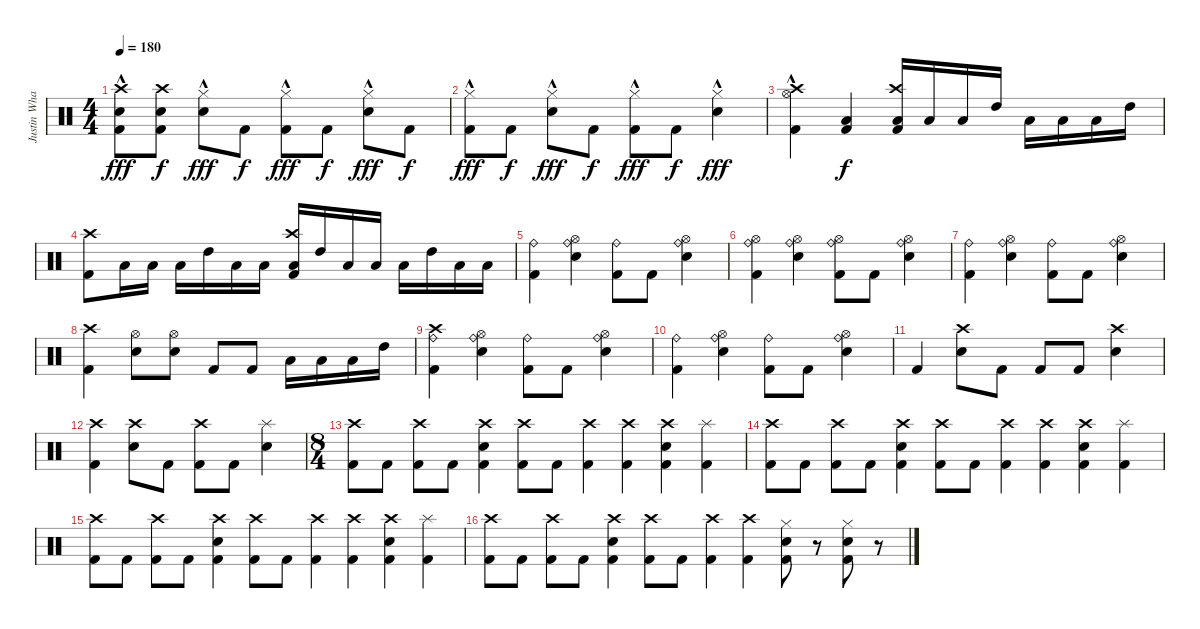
\track ("Justin Wharton" "Justin Wha") {instrument percussion}
\staff {score}
\articulation defaults
\ts (4 4)
\tempo 180
\clef neutral
\ks c
("Kick (hit) 2" "Electric Snare (hit)" "Crash high (hit)"{hac}).8{dy fff} ("Kick (hit) 2" "Electric Snare (hit)" "Crash high (hit)").8{dy f} ("Electric Snare (hit)" "Hi-Hat (closed)"{hac}).8{dy fff} "Kick (hit) 2".8{dy f} ("Kick (hit) 2" "Hi-Hat (closed)"{hac}).8{dy fff} "Kick (hit) 2".8{dy f} ("Electric Snare (hit)" "Hi-Hat (closed)"{hac}).8{dy fff} "Kick (hit) 2".8{dy f} |
("Kick (hit) 2" "Hi-Hat (closed)"{hac}).8{dy fff} "Kick (hit) 2".8{dy f} ("Electric Snare (hit)" "Hi-Hat (closed)"{hac}).8{dy fff} "Kick (hit) 2".8{dy f} ("Kick (hit) 2" "Hi-Hat (closed)"{hac}).8{dy fff} "Kick (hit) 2".8{dy f} ("Electric Snare (hit)" "Hi-Hat (closed)"{hac}).4{dy fff} |
("Kick (hit) 2" "Hi-Hat (open)"{hac} "Crash high (hit)").4 ("Kick (hit) 2" "Low Tom (hit)").4{dy f} ("Kick (hit) 2" "Low Floor Tom (hit)" "Crash high (hit)").16 "Low Floor Tom (hit)".16 "Low Tom (hit)".16 "High Tom (hit)".16 "Low Floor Tom (hit)".16 "Low Floor Tom (hit)".16 "Low Tom (hit)".16 "High Tom (hit)".16 |
("Kick (hit) 2" "Crash high (hit)").8 "Low Floor Tom (hit)".16 "Low Floor Tom (hit)".16 "Low Tom (hit)".16 "High Tom (hit)".16 "Low Floor Tom (hit)".16 "Low Floor Tom (hit)".16 ("Kick (hit) 2" "Low Tom (hit)" "Crash high (hit)").16 "High Tom (hit)".16 "Low Floor Tom (hit)".16 "Low Floor Tom (hit)".16 "Low Tom (hit)".16 "High Tom (hit)".16 "Low Floor Tom (hit)".16 "Low Floor Tom (hit)".16 |
("Kick (hit) 2" "Ride (bell)").4 ("Hi-Hat (open)" "Electric Snare (hit)" "Ride (bell)").4 ("Kick (hit) 2" "Ride (bell)").8 "Kick (hit) 2".8 ("Hi-Hat (open)" "Electric Snare (hit)" "Ride (bell)").4 |
("Kick (hit) 2" "Hi-Hat (open)" "Ride (bell)").4 ("Hi-Hat (open)" "Electric Snare (hit)" "Ride (bell)").4 ("Kick (hit) 2" "Hi-Hat (open)" "Ride (bell)").8 "Kick (hit) 2".8 ("Hi-Hat (open)" "Electric Snare (hit)" "Ride (bell)").4 |
("Kick (hit) 2" "Ride (bell)").4 ("Hi-Hat (open)" "Electric Snare (hit)" "Ride (bell)").4 ("Kick (hit) 2" "Ride (bell)").8 "Kick (hit) 2".8 ("Hi-Hat (open)" "Electric Snare (hit)" "Ride (bell)").4 |
("Kick (hit) 2" "Crash high (hit)").4 ("Electric Snare (hit)" "Hi-Hat (open)").8 ("Electric Snare (hit)" "Hi-Hat (open)").8 "Kick (hit) 2".8 "Kick (hit) 2".8 "Low Floor Tom (hit)".16 "Low Floor Tom (hit)".16 "Low Tom (hit)".16 "High Tom (hit)".16 |
("Kick (hit) 2" "Ride (bell)" "Crash high (hit)").4 ("Hi-Hat (open)" "Electric Snare (hit)" "Ride (bell)").4 ("Kick (hit) 2" "Ride (bell)").8 "Kick (hit) 2".8 ("Hi-Hat (open)" "Electric Snare (hit)" "Ride (bell)").4 |
("Kick (hit) 2" "Ride (bell)").4 ("Hi-Hat (open)" "Electric Snare (hit)" "Ride (bell)").4 ("Kick (hit) 2" "Ride (bell)").8 "Kick (hit) 2".8 ("Hi-Hat (open)" "Electric Snare (hit)" "Ride (bell)").4 |
"Kick (hit) 2".4 ("Electric Snare (hit)" "Crash high (hit)").8 "Kick (hit) 2".8 "Kick (hit) 2".8 "Kick (hit) 2".8 ("Electric Snare (hit)" "Crash high (hit)").4 |
("Kick (hit) 2" "Crash high (hit)").4 ("Electric Snare (hit)" "Crash high (hit)").8 "Kick (hit) 2".8 ("Kick (hit) 2" "Crash high (hit)").8 "Kick (hit) 2".8 ("Electric Snare (hit)" "Splash (hit)").4 |
\ts (8 4)
("Kick (hit) 2" "Crash high (hit)").8 "Kick (hit) 2".8 ("Kick (hit) 2" "Crash high (hit)").8 "Kick (hit) 2".8 ("Kick (hit) 2" "Electric Snare (hit)" "Crash high (hit)").4 ("Kick (hit) 2" "Crash high (hit)").8 "Kick (hit) 2".8 ("Kick (hit) 2" "Crash high (hit)").4 ("Kick (hit) 2" "Crash high (hit)").4 ("Kick (hit) 2" "Electric Snare (hit)" "Crash high (hit)").4 ("Kick (hit) 2" "Splash (hit)").4 |
("Kick (hit) 2" "Crash high (hit)").8 "Kick (hit) 2".8 ("Kick (hit) 2" "Crash high (hit)").8 "Kick (hit) 2".8 ("Kick (hit) 2" "Electric Snare (hit)" "Crash high (hit)").4 ("Kick (hit) 2" "Crash high (hit)").8 "Kick (hit) 2".8 ("Kick (hit) 2" "Crash high (hit)").4 ("Kick (hit) 2" "Crash high (hit)").4 ("Kick (hit) 2" "Electric Snare (hit)" "Crash high (hit)").4 ("Kick (hit) 2" "Splash (hit)").4 |
("Kick (hit) 2" "Crash high (hit)").8 "Kick (hit) 2".8 ("Kick (hit) 2" "Crash high (hit)").8 "Kick (hit) 2".8 ("Kick (hit) 2" "Electric Snare (hit)" "Crash high (hit)").4 ("Kick (hit) 2" "Crash high (hit)").8 "Kick (hit) 2".8 ("Kick (hit) 2" "Crash high (hit)").4 ("Kick (hit) 2" "Crash high (hit)").4 ("Kick (hit) 2" "Electric Snare (hit)" "Crash high (hit)").4 ("Kick (hit) 2" "Splash (hit)").4 |
("Kick (hit) 2" "Crash high (hit)").8 "Kick (hit) 2".8 ("Kick (hit) 2" "Crash high (hit)").8 "Kick (hit) 2".8 ("Kick (hit) 2" "Electric Snare (hit)" "Crash high (hit)").4 ("Kick (hit) 2" "Crash high (hit)").8 "Kick (hit) 2".8 ("Kick (hit) 2" "Crash high (hit)").4 ("Kick (hit) 2" "Crash high (hit)").4 ("Kick (hit) 2" "Electric Snare (hit)" "Hi-Hat (closed)").8 r.8 ("Kick (hit) 2" "Electric Snare (hit)" "Hi-Hat (closed)").8 r.8
